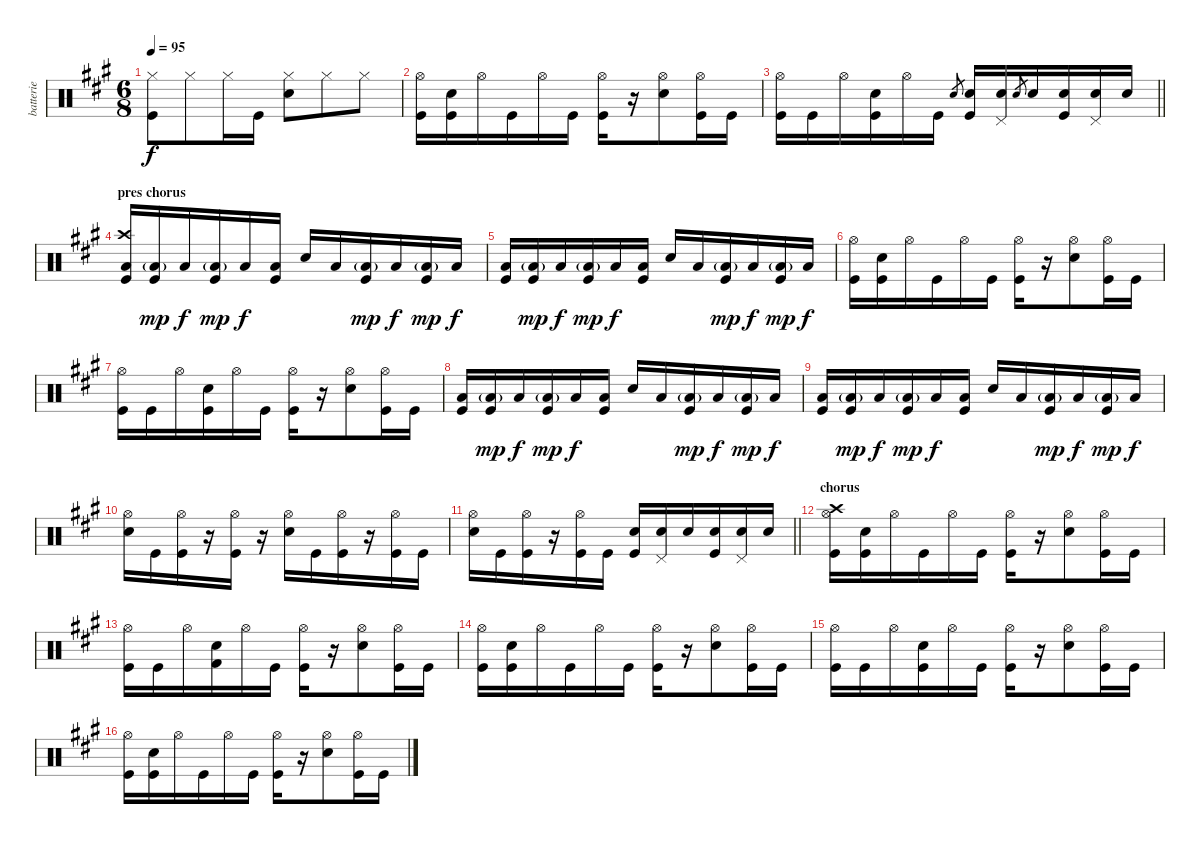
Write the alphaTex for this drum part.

\track ("batterie" "batterie") {instrument percussion}
\staff {score}
\articulation defaults
\ts (6 8)
\tempo 95
\clef neutral
\ks a
("Hi-Hat (closed)" "Kick (hit)").8{dy f} "Hi-Hat (closed)".8 "Hi-Hat (closed)".16 "Kick (hit)".16 ("Electric Snare (hit)" "Hi-Hat (closed)").8 "Hi-Hat (closed)".8 "Hi-Hat (closed)".8 |
("Hi-Hat (open)" "Kick (hit)").16 ("Electric Snare (hit)" "Kick (hit)").16 "Hi-Hat (open)".16 "Kick (hit)".16 "Hi-Hat (open)".16 "Kick (hit)".16 ("Hi-Hat (open)" "Kick (hit)").16 r.16 ("Hi-Hat (open)" "Electric Snare (hit)").8 ("Hi-Hat (open)" "Kick (hit)").16 "Kick (hit)".16 |
\barLineRight lightlight
("Hi-Hat (open)" "Kick (hit)").16 "Kick (hit)".16 "Hi-Hat (open)".16 ("Electric Snare (hit)" "Kick (hit)").16 "Hi-Hat (open)".16 "Kick (hit)".16 "Electric Snare (hit)".8{gr} ("Electric Snare (hit)" "Kick (hit)").16 ("Pedal Hi-Hat (hit)" "Electric Snare (hit)").16 "Electric Snare (hit)".8{gr} "Electric Snare (hit)".16 ("Electric Snare (hit)" "Kick (hit)").16 ("Pedal Hi-Hat (hit)" "Electric Snare (hit)").16 "Electric Snare (hit)".16 |
\section ("" "pres chorus")
("Crash high (hit)" "Low Tom (hit)" "Kick (hit)").16 ("Low Tom (hit)"{g} "Kick (hit)").16{dy mp} "Low Tom (hit)".16{dy f} ("Low Tom (hit)"{g} "Kick (hit)").16{dy mp} "Low Tom (hit)".16{dy f} ("Low Tom (hit)" "Kick (hit)").16 "Electric Snare (hit)".16 "Low Tom (hit)".16 ("Low Tom (hit)"{g} "Kick (hit)").16{dy mp} "Low Tom (hit)".16{dy f} ("Low Tom (hit)"{g} "Kick (hit)").16{dy mp} "Low Tom (hit)".16{dy f} |
("Low Tom (hit)" "Kick (hit)").16 ("Low Tom (hit)"{g} "Kick (hit)").16{dy mp} "Low Tom (hit)".16{dy f} ("Low Tom (hit)"{g} "Kick (hit)").16{dy mp} "Low Tom (hit)".16{dy f} ("Low Tom (hit)" "Kick (hit)").16 "Electric Snare (hit)".16 "Low Tom (hit)".16 ("Low Tom (hit)"{g} "Kick (hit)").16{dy mp} "Low Tom (hit)".16{dy f} ("Low Tom (hit)"{g} "Kick (hit)").16{dy mp} "Low Tom (hit)".16{dy f} |
("Hi-Hat (open)" "Kick (hit)").16 ("Electric Snare (hit)" "Kick (hit)").16 "Hi-Hat (open)".16 "Kick (hit)".16 "Hi-Hat (open)".16 "Kick (hit)".16 ("Hi-Hat (open)" "Kick (hit)").16 r.16 ("Hi-Hat (open)" "Electric Snare (hit)").8 ("Hi-Hat (open)" "Kick (hit)").16 "Kick (hit)".16 |
("Hi-Hat (open)" "Kick (hit)").16 "Kick (hit)".16 "Hi-Hat (open)".16 ("Electric Snare (hit)" "Kick (hit)").16 "Hi-Hat (open)".16 "Kick (hit)".16 ("Hi-Hat (open)" "Kick (hit)").16 r.16 ("Hi-Hat (open)" "Electric Snare (hit)").8 ("Hi-Hat (open)" "Kick (hit)").16 "Kick (hit)".16 |
("Low Tom (hit)" "Kick (hit)").16 ("Low Tom (hit)"{g} "Kick (hit)").16{dy mp} "Low Tom (hit)".16{dy f} ("Low Tom (hit)"{g} "Kick (hit)").16{dy mp} "Low Tom (hit)".16{dy f} ("Low Tom (hit)" "Kick (hit)").16 "Electric Snare (hit)".16 "Low Tom (hit)".16 ("Low Tom (hit)"{g} "Kick (hit)").16{dy mp} "Low Tom (hit)".16{dy f} ("Low Tom (hit)"{g} "Kick (hit)").16{dy mp} "Low Tom (hit)".16{dy f} |
("Low Tom (hit)" "Kick (hit)").16 ("Low Tom (hit)"{g} "Kick (hit)").16{dy mp} "Low Tom (hit)".16{dy f} ("Low Tom (hit)"{g} "Kick (hit)").16{dy mp} "Low Tom (hit)".16{dy f} ("Low Tom (hit)" "Kick (hit)").16 "Electric Snare (hit)".16 "Low Tom (hit)".16 ("Low Tom (hit)"{g} "Kick (hit)").16{dy mp} "Low Tom (hit)".16{dy f} ("Low Tom (hit)"{g} "Kick (hit)").16{dy mp} "Low Tom (hit)".16{dy f} |
("Hi-Hat (open)" "Electric Snare (hit)").16 "Kick (hit)".16 ("Hi-Hat (open)" "Kick (hit)").16 r.16 ("Hi-Hat (open)" "Kick (hit)").16 r.16 ("Hi-Hat (open)" "Electric Snare (hit)").16 "Kick (hit)".16 ("Hi-Hat (open)" "Kick (hit)").16 r.16 ("Hi-Hat (open)" "Kick (hit)").16 "Kick (hit)".16 |
\barLineRight lightlight
("Hi-Hat (open)" "Electric Snare (hit)").16 "Kick (hit)".16 ("Hi-Hat (open)" "Kick (hit)").16 r.16 ("Hi-Hat (open)" "Kick (hit)").16 "Kick (hit)".16 ("Electric Snare (hit)" "Kick (hit)").16 ("Pedal Hi-Hat (hit)" "Electric Snare (hit)").16 "Electric Snare (hit)".16 ("Electric Snare (hit)" "Kick (hit)").16 ("Pedal Hi-Hat (hit)" "Electric Snare (hit)").16 "Electric Snare (hit)".16 |
\section ("" "chorus")
("Hi-Hat (open)" "Crash high (hit)" "Kick (hit)").16 ("Electric Snare (hit)" "Kick (hit)").16 "Hi-Hat (open)".16 "Kick (hit)".16 "Hi-Hat (open)".16 "Kick (hit)".16 ("Hi-Hat (open)" "Kick (hit)").16 r.16 ("Hi-Hat (open)" "Electric Snare (hit)").8 ("Hi-Hat (open)" "Kick (hit)").16 "Kick (hit)".16 |
("Hi-Hat (open)" "Kick (hit)").16 "Kick (hit)".16 "Hi-Hat (open)".16 ("Electric Snare (hit)" "Kick (hit) 2").16 "Hi-Hat (open)".16 "Kick (hit)".16 ("Hi-Hat (open)" "Kick (hit)").16 r.16 ("Hi-Hat (open)" "Electric Snare (hit)").8 ("Hi-Hat (open)" "Kick (hit)").16 "Kick (hit)".16 |
("Hi-Hat (open)" "Kick (hit)").16 ("Electric Snare (hit)" "Kick (hit)").16 "Hi-Hat (open)".16 "Kick (hit)".16 "Hi-Hat (open)".16 "Kick (hit)".16 ("Hi-Hat (open)" "Kick (hit)").16 r.16 ("Hi-Hat (open)" "Electric Snare (hit)").8 ("Hi-Hat (open)" "Kick (hit)").16 "Kick (hit)".16 |
("Hi-Hat (open)" "Kick (hit)").16 "Kick (hit)".16 "Hi-Hat (open)".16 ("Electric Snare (hit)" "Kick (hit)").16 "Hi-Hat (open)".16 "Kick (hit)".16 ("Hi-Hat (open)" "Kick (hit)").16 r.16 ("Hi-Hat (open)" "Electric Snare (hit)").8 ("Hi-Hat (open)" "Kick (hit)").16 "Kick (hit)".16 |
("Hi-Hat (open)" "Kick (hit)").16 ("Electric Snare (hit)" "Kick (hit)").16 "Hi-Hat (open)".16 "Kick (hit)".16 "Hi-Hat (open)".16 "Kick (hit)".16 ("Hi-Hat (open)" "Kick (hit)").16 r.16 ("Hi-Hat (open)" "Electric Snare (hit)").8 ("Hi-Hat (open)" "Kick (hit)").16 "Kick (hit)".16
